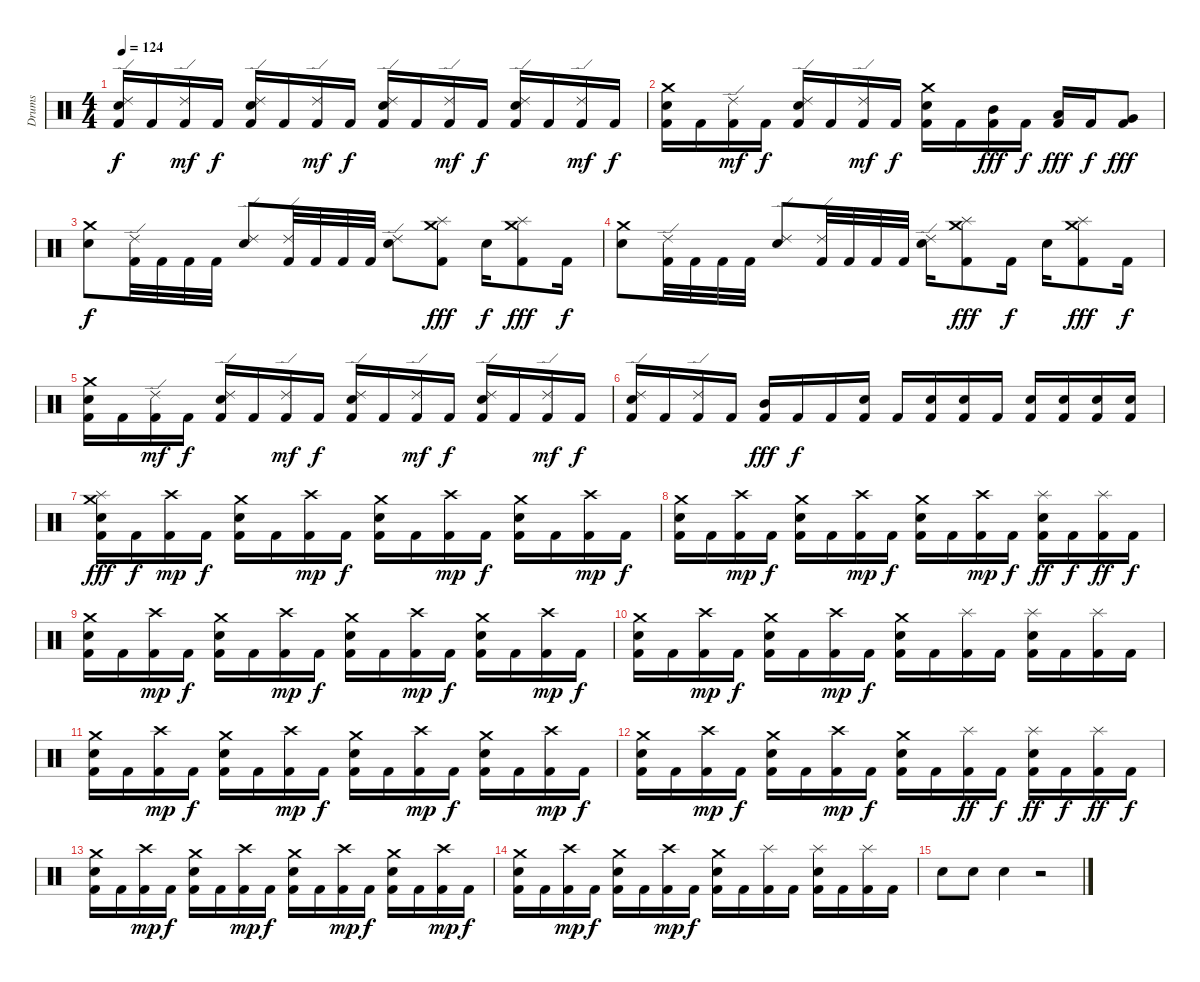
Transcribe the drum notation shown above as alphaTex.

\track ("Drums" "Drums") {instrument percussion}
\staff {score}
\articulation defaults
\ts (4 4)
\tempo 124
\clef neutral
\ks c
("Ride (edge) 2" "Electric Snare (hit)" "Kick (hit) 2").16{dy f} "Kick (hit) 2".16 ("Ride (edge) 2" "Kick (hit) 2").16{dy mf} "Kick (hit) 2".16{dy f} ("Ride (edge) 2" "Electric Snare (hit)" "Kick (hit) 2").16 "Kick (hit) 2".16 ("Ride (edge) 2" "Kick (hit) 2").16{dy mf} "Kick (hit) 2".16{dy f} ("Ride (edge) 2" "Electric Snare (hit)" "Kick (hit) 2").16 "Kick (hit) 2".16 ("Ride (edge) 2" "Kick (hit) 2").16{dy mf} "Kick (hit) 2".16{dy f} ("Ride (edge) 2" "Electric Snare (hit)" "Kick (hit) 2").16 "Kick (hit) 2".16 ("Ride (edge) 2" "Kick (hit) 2").16{dy mf} "Kick (hit) 2".16{dy f} |
("Crash medium (hit)" "Electric Snare (hit)" "Kick (hit) 2").16 "Kick (hit) 2".16 ("Ride (edge) 2" "Kick (hit) 2").16{dy mf} "Kick (hit) 2".16{dy f} ("Ride (edge) 2" "Electric Snare (hit)" "Kick (hit) 2").16 "Kick (hit) 2".16 ("Ride (edge) 2" "Kick (hit) 2").16{dy mf} "Kick (hit) 2".16{dy f} ("Crash medium (hit)" "Electric Snare (hit)" "Kick (hit) 2").16 "Kick (hit) 2".16 ("Mid Tom (hit)" "Kick (hit) 2").16{dy fff} "Kick (hit) 2".16{dy f} ("Low Tom (hit)" "Kick (hit) 2").16{dy fff} "Kick (hit) 2".16{dy f} ("Very Low Tom (hit)" "Kick (hit) 2").8{dy fff} |
("Crash medium (hit)" "Electric Snare (hit)").8{dy f} ("Ride (edge) 2" "Kick (hit) 2").32 "Kick (hit) 2".32 "Kick (hit) 2".32 "Kick (hit) 2".32 ("Ride (edge) 2" "Electric Snare (hit)").8 ("Ride (edge) 2" "Kick (hit) 2").32 "Kick (hit) 2".32 "Kick (hit) 2".32 "Kick (hit) 2".32 ("Ride (edge) 2" "Electric Snare (hit)").8 ("Crash medium (hit)" "Splash (hit)" "Kick (hit) 2").8{dy fff} "Electric Snare (hit)".16{dy f} ("Crash medium (hit)" "Splash (hit)" "Kick (hit) 2").8{dy fff} "Kick (hit) 2".16{dy f} |
("Crash medium (hit)" "Electric Snare (hit)").8 ("Ride (edge) 2" "Kick (hit) 2").32 "Kick (hit) 2".32 "Kick (hit) 2".32 "Kick (hit) 2".32 ("Ride (edge) 2" "Electric Snare (hit)").8 ("Ride (edge) 2" "Kick (hit) 2").32 "Kick (hit) 2".32 "Kick (hit) 2".32 "Kick (hit) 2".32 ("Ride (edge) 2" "Electric Snare (hit)").16 ("Crash medium (hit)" "Splash (hit)" "Kick (hit) 2").8{dy fff} "Kick (hit) 2".16{dy f} "Electric Snare (hit)".16 ("Crash medium (hit)" "Splash (hit)" "Kick (hit) 2").8{dy fff} "Kick (hit) 2".16{dy f} |
("Crash medium (hit)" "Electric Snare (hit)" "Kick (hit) 2").16 "Kick (hit) 2".16 ("Ride (edge) 2" "Kick (hit) 2").16{dy mf} "Kick (hit) 2".16{dy f} ("Ride (edge) 2" "Electric Snare (hit)" "Kick (hit) 2").16 "Kick (hit) 2".16 ("Ride (edge) 2" "Kick (hit) 2").16{dy mf} "Kick (hit) 2".16{dy f} ("Ride (edge) 2" "Electric Snare (hit)" "Kick (hit) 2").16 "Kick (hit) 2".16 ("Ride (edge) 2" "Kick (hit) 2").16{dy mf} "Kick (hit) 2".16{dy f} ("Ride (edge) 2" "Electric Snare (hit)" "Kick (hit) 2").16 "Kick (hit) 2".16 ("Ride (edge) 2" "Kick (hit) 2").16{dy mf} "Kick (hit) 2".16{dy f} |
("Ride (edge) 2" "Electric Snare (hit)" "Kick (hit) 2").16 "Kick (hit) 2".16 ("Ride (edge) 2" "Kick (hit) 2").16 "Kick (hit) 2".16 ("Mid Tom (hit)" "Kick (hit) 2").16{dy fff} "Kick (hit) 2".16{dy f} "Kick (hit) 2".16 ("Electric Snare (hit)" "Kick (hit) 2").16 "Kick (hit) 2".16 ("Electric Snare (hit)" "Kick (hit) 2").16 ("Electric Snare (hit)" "Kick (hit) 2").16 "Kick (hit) 2".16 ("Electric Snare (hit)" "Kick (hit) 2").16 ("Electric Snare (hit)" "Kick (hit) 2").16 ("Electric Snare (hit)" "Kick (hit) 2").16 ("Electric Snare (hit)" "Kick (hit) 2").16 |
("Crash medium (hit)" "Splash (hit)" "Electric Snare (hit)" "Kick (hit) 2").16{dy fff} "Kick (hit) 2".16{dy f} ("Crash high (hit)" "Kick (hit) 2").16{dy mp} "Kick (hit) 2".16{dy f} ("Crash medium (hit)" "Electric Snare (hit)" "Kick (hit) 2").16 "Kick (hit) 2".16 ("Crash high (hit)" "Kick (hit) 2").16{dy mp} "Kick (hit) 2".16{dy f} ("Crash medium (hit)" "Electric Snare (hit)" "Kick (hit) 2").16 "Kick (hit) 2".16 ("Crash high (hit)" "Kick (hit) 2").16{dy mp} "Kick (hit) 2".16{dy f} ("Crash medium (hit)" "Electric Snare (hit)" "Kick (hit) 2").16 "Kick (hit) 2".16 ("Crash high (hit)" "Kick (hit) 2").16{dy mp} "Kick (hit) 2".16{dy f} |
("Crash medium (hit)" "Electric Snare (hit)" "Kick (hit) 2").16 "Kick (hit) 2".16 ("Crash high (hit)" "Kick (hit) 2").16{dy mp} "Kick (hit) 2".16{dy f} ("Crash medium (hit)" "Electric Snare (hit)" "Kick (hit) 2").16 "Kick (hit) 2".16 ("Crash high (hit)" "Kick (hit) 2").16{dy mp} "Kick (hit) 2".16{dy f} ("Crash medium (hit)" "Electric Snare (hit)" "Kick (hit) 2").16 "Kick (hit) 2".16 ("Crash high (hit)" "Kick (hit) 2").16{dy mp} "Kick (hit) 2".16{dy f} ("Splash (hit)" "Electric Snare (hit)" "Kick (hit) 2").16{dy ff} "Kick (hit) 2".16{dy f} ("Splash (hit)" "Kick (hit) 2").16{dy ff} "Kick (hit) 2".16{dy f} |
("Crash medium (hit)" "Electric Snare (hit)" "Kick (hit) 2").16 "Kick (hit) 2".16 ("Crash high (hit)" "Kick (hit) 2").16{dy mp} "Kick (hit) 2".16{dy f} ("Crash medium (hit)" "Electric Snare (hit)" "Kick (hit) 2").16 "Kick (hit) 2".16 ("Crash high (hit)" "Kick (hit) 2").16{dy mp} "Kick (hit) 2".16{dy f} ("Crash medium (hit)" "Electric Snare (hit)" "Kick (hit) 2").16 "Kick (hit) 2".16 ("Crash high (hit)" "Kick (hit) 2").16{dy mp} "Kick (hit) 2".16{dy f} ("Crash medium (hit)" "Electric Snare (hit)" "Kick (hit) 2").16 "Kick (hit) 2".16 ("Crash high (hit)" "Kick (hit) 2").16{dy mp} "Kick (hit) 2".16{dy f} |
("Crash medium (hit)" "Electric Snare (hit)" "Kick (hit) 2").16 "Kick (hit) 2".16 ("Crash high (hit)" "Kick (hit) 2").16{dy mp} "Kick (hit) 2".16{dy f} ("Crash medium (hit)" "Electric Snare (hit)" "Kick (hit) 2").16 "Kick (hit) 2".16 ("Crash high (hit)" "Kick (hit) 2").16{dy mp} "Kick (hit) 2".16{dy f} ("Crash medium (hit)" "Electric Snare (hit)" "Kick (hit) 2").16 "Kick (hit) 2".16 ("Splash (hit)" "Kick (hit) 2").16 "Kick (hit) 2".16 ("Splash (hit)" "Electric Snare (hit)" "Kick (hit) 2").16 "Kick (hit) 2".16 ("Splash (hit)" "Kick (hit) 2").16 "Kick (hit) 2".16 |
("Crash medium (hit)" "Electric Snare (hit)" "Kick (hit) 2").16 "Kick (hit) 2".16 ("Crash high (hit)" "Kick (hit) 2").16{dy mp} "Kick (hit) 2".16{dy f} ("Crash medium (hit)" "Electric Snare (hit)" "Kick (hit) 2").16 "Kick (hit) 2".16 ("Crash high (hit)" "Kick (hit) 2").16{dy mp} "Kick (hit) 2".16{dy f} ("Crash medium (hit)" "Electric Snare (hit)" "Kick (hit) 2").16 "Kick (hit) 2".16 ("Crash high (hit)" "Kick (hit) 2").16{dy mp} "Kick (hit) 2".16{dy f} ("Crash medium (hit)" "Electric Snare (hit)" "Kick (hit) 2").16 "Kick (hit) 2".16 ("Crash high (hit)" "Kick (hit) 2").16{dy mp} "Kick (hit) 2".16{dy f} |
("Crash medium (hit)" "Electric Snare (hit)" "Kick (hit) 2").16 "Kick (hit) 2".16 ("Crash high (hit)" "Kick (hit) 2").16{dy mp} "Kick (hit) 2".16{dy f} ("Crash medium (hit)" "Electric Snare (hit)" "Kick (hit) 2").16 "Kick (hit) 2".16 ("Crash high (hit)" "Kick (hit) 2").16{dy mp} "Kick (hit) 2".16{dy f} ("Crash medium (hit)" "Electric Snare (hit)" "Kick (hit) 2").16 "Kick (hit) 2".16 ("Splash (hit)" "Kick (hit) 2").16{dy ff} "Kick (hit) 2".16{dy f} ("Splash (hit)" "Electric Snare (hit)" "Kick (hit) 2").16{dy ff} "Kick (hit) 2".16{dy f} ("Splash (hit)" "Kick (hit) 2").16{dy ff} "Kick (hit) 2".16{dy f} |
("Crash medium (hit)" "Electric Snare (hit)" "Kick (hit) 2").16 "Kick (hit) 2".16 ("Crash high (hit)" "Kick (hit) 2").16{dy mp} "Kick (hit) 2".16{dy f} ("Crash medium (hit)" "Electric Snare (hit)" "Kick (hit) 2").16 "Kick (hit) 2".16 ("Crash high (hit)" "Kick (hit) 2").16{dy mp} "Kick (hit) 2".16{dy f} ("Crash medium (hit)" "Electric Snare (hit)" "Kick (hit) 2").16 "Kick (hit) 2".16 ("Crash high (hit)" "Kick (hit) 2").16{dy mp} "Kick (hit) 2".16{dy f} ("Crash medium (hit)" "Electric Snare (hit)" "Kick (hit) 2").16 "Kick (hit) 2".16 ("Crash high (hit)" "Kick (hit) 2").16{dy mp} "Kick (hit) 2".16{dy f} |
("Crash medium (hit)" "Electric Snare (hit)" "Kick (hit) 2").16 "Kick (hit) 2".16 ("Crash high (hit)" "Kick (hit) 2").16{dy mp} "Kick (hit) 2".16{dy f} ("Crash medium (hit)" "Electric Snare (hit)" "Kick (hit) 2").16 "Kick (hit) 2".16 ("Crash high (hit)" "Kick (hit) 2").16{dy mp} "Kick (hit) 2".16{dy f} ("Crash medium (hit)" "Electric Snare (hit)" "Kick (hit) 2").16 "Kick (hit) 2".16 ("Splash (hit)" "Kick (hit) 2").16 "Kick (hit) 2".16 ("Splash (hit)" "Electric Snare (hit)" "Kick (hit) 2").16 "Kick (hit) 2".16 ("Splash (hit)" "Kick (hit) 2").16 "Kick (hit) 2".16 |
"Electric Snare (hit)".8 "Electric Snare (hit)".8 "Electric Snare (hit)".4 r.2
